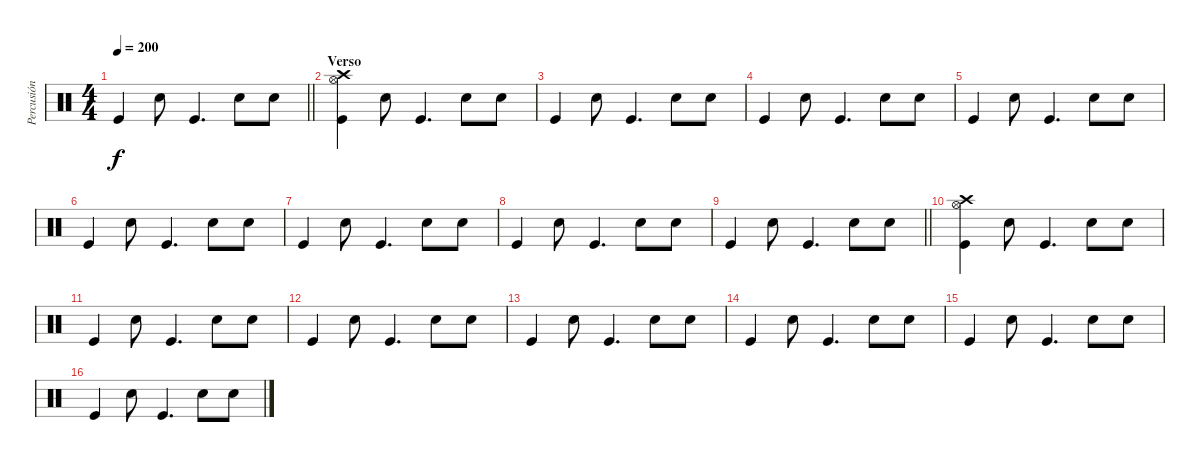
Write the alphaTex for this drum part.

\track ("Percusión" "Percusión") {instrument percussion}
\staff {score}
\articulation defaults
\ts (4 4)
\tempo 200
\clef neutral
\barLineRight lightlight
\ks c "Kick (hit)".4{dy f} "Snare (hit) 2".8 "Kick (hit)".4{d} "Snare (hit) 2".8 "Snare (hit) 2".8
|
\section ("" "Verso")
("Hi-Hat (open)" "Crash high (hit)" "Kick (hit)").4 "Snare (hit) 2".8 "Kick (hit)".4{d} "Snare (hit) 2".8 "Snare (hit) 2".8 |
"Kick (hit)".4 "Snare (hit) 2".8 "Kick (hit)".4{d} "Snare (hit) 2".8 "Snare (hit) 2".8 |
"Kick (hit)".4 "Snare (hit) 2".8 "Kick (hit)".4{d} "Snare (hit) 2".8 "Snare (hit) 2".8 |
"Kick (hit)".4 "Snare (hit) 2".8 "Kick (hit)".4{d} "Snare (hit) 2".8 "Snare (hit) 2".8 |
"Kick (hit)".4 "Snare (hit) 2".8 "Kick (hit)".4{d} "Snare (hit) 2".8 "Snare (hit) 2".8 |
"Kick (hit)".4 "Snare (hit) 2".8 "Kick (hit)".4{d} "Snare (hit) 2".8 "Snare (hit) 2".8 |
"Kick (hit)".4 "Snare (hit) 2".8 "Kick (hit)".4{d} "Snare (hit) 2".8 "Snare (hit) 2".8 |
\barLineRight lightlight "Kick (hit)".4 "Snare (hit) 2".8 "Kick (hit)".4{d} "Snare (hit) 2".8 "Snare (hit) 2".8
|
\section ("" "")
("Hi-Hat (open)" "Crash high (hit)" "Kick (hit)").4 "Snare (hit) 2".8 "Kick (hit)".4{d} "Snare (hit) 2".8 "Snare (hit) 2".8 |
"Kick (hit)".4 "Snare (hit) 2".8 "Kick (hit)".4{d} "Snare (hit) 2".8 "Snare (hit) 2".8 |
"Kick (hit)".4 "Snare (hit) 2".8 "Kick (hit)".4{d} "Snare (hit) 2".8 "Snare (hit) 2".8 |
"Kick (hit)".4 "Snare (hit) 2".8 "Kick (hit)".4{d} "Snare (hit) 2".8 "Snare (hit) 2".8 |
"Kick (hit)".4 "Snare (hit) 2".8 "Kick (hit)".4{d} "Snare (hit) 2".8 "Snare (hit) 2".8 |
"Kick (hit)".4 "Snare (hit) 2".8 "Kick (hit)".4{d} "Snare (hit) 2".8 "Snare (hit) 2".8 |
"Kick (hit)".4 "Snare (hit) 2".8 "Kick (hit)".4{d} "Snare (hit) 2".8 "Snare (hit) 2".8
